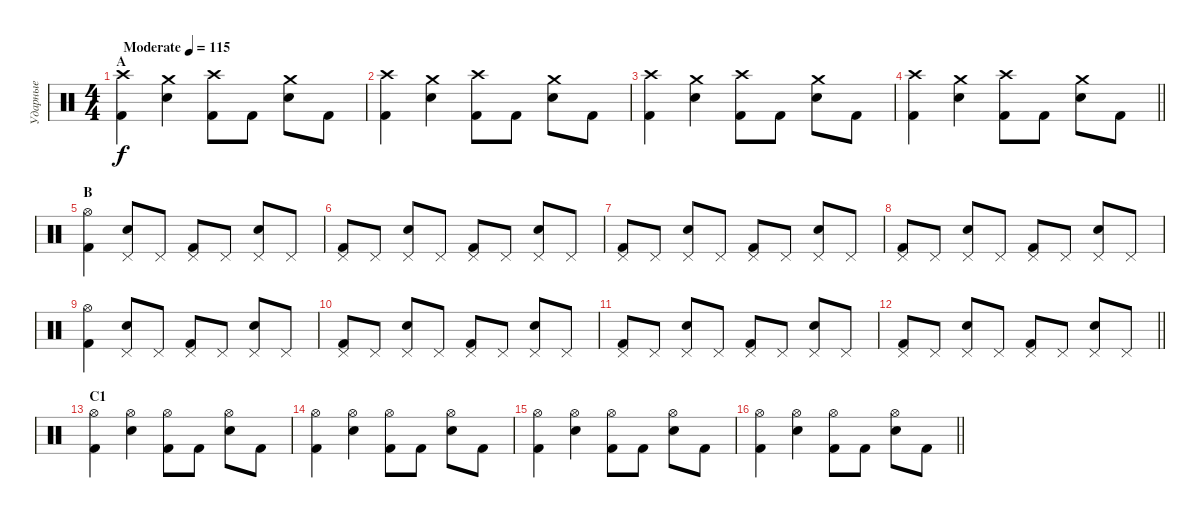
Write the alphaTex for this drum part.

\track ("Ударные" "Ударные") {instrument percussion}
\staff {score}
\articulation defaults
\ts (4 4)
\section ("" "A")
\tempo (115 "Moderate")
\clef neutral
\ks c
("Kick (hit) 2" "Crash high (hit)").4{dy f} ("Electric Snare (hit)" "Crash medium (hit)").4 ("Kick (hit) 2" "Crash high (hit)").8 "Kick (hit) 2".8 ("Electric Snare (hit)" "Crash medium (hit)").8 "Kick (hit) 2".8 |
("Kick (hit) 2" "Crash high (hit)").4 ("Electric Snare (hit)" "Crash medium (hit)").4 ("Kick (hit) 2" "Crash high (hit)").8 "Kick (hit) 2".8 ("Electric Snare (hit)" "Crash medium (hit)").8 "Kick (hit) 2".8 |
("Kick (hit) 2" "Crash high (hit)").4 ("Electric Snare (hit)" "Crash medium (hit)").4 ("Kick (hit) 2" "Crash high (hit)").8 "Kick (hit) 2".8 ("Electric Snare (hit)" "Crash medium (hit)").8 "Kick (hit) 2".8 |
\barLineRight lightlight
("Kick (hit) 2" "Crash high (hit)").4 ("Electric Snare (hit)" "Crash medium (hit)").4 ("Kick (hit) 2" "Crash high (hit)").8 "Kick (hit) 2".8 ("Electric Snare (hit)" "Crash medium (hit)").8 "Kick (hit) 2".8 |
\section ("" "B")
("Hi-Hat (open)" "Kick (hit) 2").4 ("Pedal Hi-Hat (hit)" "Electric Snare (hit)").8 "Pedal Hi-Hat (hit)".8 ("Pedal Hi-Hat (hit)" "Kick (hit) 2").8 "Pedal Hi-Hat (hit)".8 ("Pedal Hi-Hat (hit)" "Electric Snare (hit)").8 "Pedal Hi-Hat (hit)".8 |
("Pedal Hi-Hat (hit)" "Kick (hit) 2").8 "Pedal Hi-Hat (hit)".8 ("Pedal Hi-Hat (hit)" "Electric Snare (hit)").8 "Pedal Hi-Hat (hit)".8 ("Pedal Hi-Hat (hit)" "Kick (hit) 2").8 "Pedal Hi-Hat (hit)".8 ("Pedal Hi-Hat (hit)" "Electric Snare (hit)").8 "Pedal Hi-Hat (hit)".8 |
("Pedal Hi-Hat (hit)" "Kick (hit) 2").8 "Pedal Hi-Hat (hit)".8 ("Pedal Hi-Hat (hit)" "Electric Snare (hit)").8 "Pedal Hi-Hat (hit)".8 ("Pedal Hi-Hat (hit)" "Kick (hit) 2").8 "Pedal Hi-Hat (hit)".8 ("Pedal Hi-Hat (hit)" "Electric Snare (hit)").8 "Pedal Hi-Hat (hit)".8 |
("Pedal Hi-Hat (hit)" "Kick (hit) 2").8 "Pedal Hi-Hat (hit)".8 ("Pedal Hi-Hat (hit)" "Electric Snare (hit)").8 "Pedal Hi-Hat (hit)".8 ("Pedal Hi-Hat (hit)" "Kick (hit) 2").8 "Pedal Hi-Hat (hit)".8 ("Pedal Hi-Hat (hit)" "Electric Snare (hit)").8 "Pedal Hi-Hat (hit)".8 |
("Hi-Hat (open)" "Kick (hit) 2").4 ("Pedal Hi-Hat (hit)" "Electric Snare (hit)").8 "Pedal Hi-Hat (hit)".8 ("Pedal Hi-Hat (hit)" "Kick (hit) 2").8 "Pedal Hi-Hat (hit)".8 ("Pedal Hi-Hat (hit)" "Electric Snare (hit)").8 "Pedal Hi-Hat (hit)".8 |
("Pedal Hi-Hat (hit)" "Kick (hit) 2").8 "Pedal Hi-Hat (hit)".8 ("Pedal Hi-Hat (hit)" "Electric Snare (hit)").8 "Pedal Hi-Hat (hit)".8 ("Pedal Hi-Hat (hit)" "Kick (hit) 2").8 "Pedal Hi-Hat (hit)".8 ("Pedal Hi-Hat (hit)" "Electric Snare (hit)").8 "Pedal Hi-Hat (hit)".8 |
("Pedal Hi-Hat (hit)" "Kick (hit) 2").8 "Pedal Hi-Hat (hit)".8 ("Pedal Hi-Hat (hit)" "Electric Snare (hit)").8 "Pedal Hi-Hat (hit)".8 ("Pedal Hi-Hat (hit)" "Kick (hit) 2").8 "Pedal Hi-Hat (hit)".8 ("Pedal Hi-Hat (hit)" "Electric Snare (hit)").8 "Pedal Hi-Hat (hit)".8 |
\barLineRight lightlight
("Pedal Hi-Hat (hit)" "Kick (hit) 2").8 "Pedal Hi-Hat (hit)".8 ("Pedal Hi-Hat (hit)" "Electric Snare (hit)").8 "Pedal Hi-Hat (hit)".8 ("Pedal Hi-Hat (hit)" "Kick (hit) 2").8 "Pedal Hi-Hat (hit)".8 ("Pedal Hi-Hat (hit)" "Electric Snare (hit)").8 "Pedal Hi-Hat (hit)".8 |
\section ("" "C1")
("Kick (hit) 2" "Hi-Hat (open)").4 ("Electric Snare (hit)" "Hi-Hat (open)").4 ("Kick (hit) 2" "Hi-Hat (open)").8 "Kick (hit) 2".8 ("Electric Snare (hit)" "Hi-Hat (open)").8 "Kick (hit) 2".8 |
("Kick (hit) 2" "Hi-Hat (open)").4 ("Electric Snare (hit)" "Hi-Hat (open)").4 ("Kick (hit) 2" "Hi-Hat (open)").8 "Kick (hit) 2".8 ("Electric Snare (hit)" "Hi-Hat (open)").8 "Kick (hit) 2".8 |
("Kick (hit) 2" "Hi-Hat (open)").4 ("Electric Snare (hit)" "Hi-Hat (open)").4 ("Kick (hit) 2" "Hi-Hat (open)").8 "Kick (hit) 2".8 ("Electric Snare (hit)" "Hi-Hat (open)").8 "Kick (hit) 2".8 |
\barLineRight lightlight
("Kick (hit) 2" "Hi-Hat (open)").4 ("Electric Snare (hit)" "Hi-Hat (open)").4 ("Kick (hit) 2" "Hi-Hat (open)").8 "Kick (hit) 2".8 ("Electric Snare (hit)" "Hi-Hat (open)").8 "Kick (hit) 2".8
